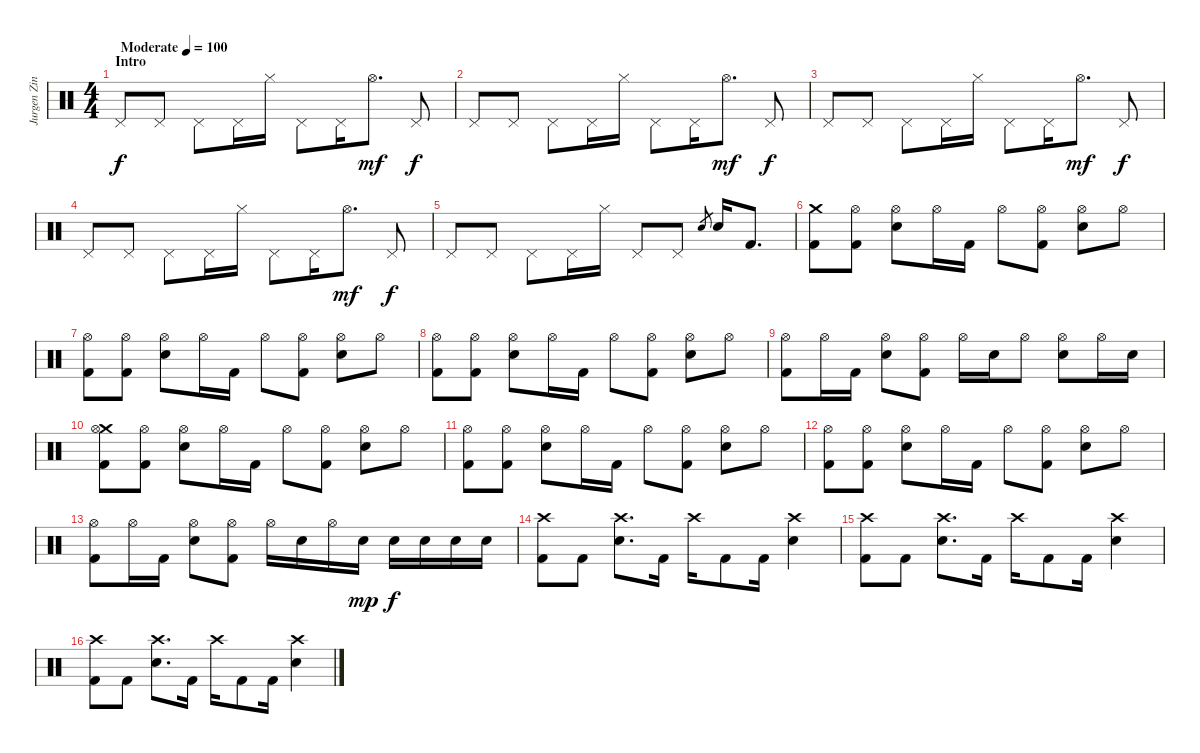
\track ("Jurgen Zing" "Jurgen Zin") {instrument percussion}
\staff {score}
\articulation defaults
\ts (4 4)
\section ("" "Intro")
\tempo (100 "Moderate")
\clef neutral
\ks c "Pedal Hi-Hat (hit)".8{dy f} "Pedal Hi-Hat (hit)".8 "Pedal Hi-Hat (hit)".8 "Pedal Hi-Hat (hit)".16 "Hi-Hat (closed)".16 "Pedal Hi-Hat (hit)".8 "Pedal Hi-Hat (hit)".16 "Hi-Hat (open)".8{d dy mf} "Pedal Hi-Hat (hit)".8{dy f}
|
"Pedal Hi-Hat (hit)".8 "Pedal Hi-Hat (hit)".8 "Pedal Hi-Hat (hit)".8 "Pedal Hi-Hat (hit)".16 "Hi-Hat (closed)".16 "Pedal Hi-Hat (hit)".8 "Pedal Hi-Hat (hit)".16 "Hi-Hat (open)".8{d dy mf} "Pedal Hi-Hat (hit)".8{dy f} |
"Pedal Hi-Hat (hit)".8 "Pedal Hi-Hat (hit)".8 "Pedal Hi-Hat (hit)".8 "Pedal Hi-Hat (hit)".16 "Hi-Hat (closed)".16 "Pedal Hi-Hat (hit)".8 "Pedal Hi-Hat (hit)".16 "Hi-Hat (open)".8{d dy mf} "Pedal Hi-Hat (hit)".8{dy f} |
"Pedal Hi-Hat (hit)".8 "Pedal Hi-Hat (hit)".8 "Pedal Hi-Hat (hit)".8 "Pedal Hi-Hat (hit)".16 "Hi-Hat (closed)".16 "Pedal Hi-Hat (hit)".8 "Pedal Hi-Hat (hit)".16 "Hi-Hat (open)".8{d dy mf} "Pedal Hi-Hat (hit)".8{dy f} |
"Pedal Hi-Hat (hit)".8 "Pedal Hi-Hat (hit)".8 "Pedal Hi-Hat (hit)".8 "Pedal Hi-Hat (hit)".16 "Hi-Hat (closed)".16 "Pedal Hi-Hat (hit)".8 "Pedal Hi-Hat (hit)".8 "Electric Snare (hit)".8{gr} "Electric Snare (hit)".16 "Kick (hit) 2".8{d} |
("Crash medium (hit)" "Kick (hit) 2").8 ("Hi-Hat (open)" "Kick (hit) 2").8 ("Hi-Hat (open)" "Electric Snare (hit)").8 "Hi-Hat (open)".16 "Kick (hit) 2".16 "Hi-Hat (open)".8 ("Hi-Hat (open)" "Kick (hit) 2").8 ("Hi-Hat (open)" "Electric Snare (hit)").8 "Hi-Hat (open)".8 |
("Hi-Hat (open)" "Kick (hit) 2").8 ("Hi-Hat (open)" "Kick (hit) 2").8 ("Hi-Hat (open)" "Electric Snare (hit)").8 "Hi-Hat (open)".16 "Kick (hit) 2".16 "Hi-Hat (open)".8 ("Hi-Hat (open)" "Kick (hit) 2").8 ("Hi-Hat (open)" "Electric Snare (hit)").8 "Hi-Hat (open)".8 |
("Hi-Hat (open)" "Kick (hit) 2").8 ("Hi-Hat (open)" "Kick (hit) 2").8 ("Hi-Hat (open)" "Electric Snare (hit)").8 "Hi-Hat (open)".16 "Kick (hit) 2".16 "Hi-Hat (open)".8 ("Hi-Hat (open)" "Kick (hit) 2").8 ("Hi-Hat (open)" "Electric Snare (hit)").8 "Hi-Hat (open)".8 |
("Hi-Hat (open)" "Kick (hit) 2").8 "Hi-Hat (open)".16 "Kick (hit) 2".16 ("Hi-Hat (open)" "Electric Snare (hit)").8 ("Hi-Hat (open)" "Kick (hit) 2").8 "Hi-Hat (open)".16 "Electric Snare (hit)".16 "Hi-Hat (open)".8 ("Hi-Hat (open)" "Electric Snare (hit)").8 "Hi-Hat (open)".16 "Electric Snare (hit)".16 |
("Crash medium (hit)" "Hi-Hat (open)" "Kick (hit) 2").8 ("Hi-Hat (open)" "Kick (hit) 2").8 ("Hi-Hat (open)" "Electric Snare (hit)").8 "Hi-Hat (open)".16 "Kick (hit) 2".16 "Hi-Hat (open)".8 ("Hi-Hat (open)" "Kick (hit) 2").8 ("Hi-Hat (open)" "Electric Snare (hit)").8 "Hi-Hat (open)".8 |
("Hi-Hat (open)" "Kick (hit) 2").8 ("Hi-Hat (open)" "Kick (hit) 2").8 ("Hi-Hat (open)" "Electric Snare (hit)").8 "Hi-Hat (open)".16 "Kick (hit) 2".16 "Hi-Hat (open)".8 ("Hi-Hat (open)" "Kick (hit) 2").8 ("Hi-Hat (open)" "Electric Snare (hit)").8 "Hi-Hat (open)".8 |
("Hi-Hat (open)" "Kick (hit) 2").8 ("Hi-Hat (open)" "Kick (hit) 2").8 ("Hi-Hat (open)" "Electric Snare (hit)").8 "Hi-Hat (open)".16 "Kick (hit) 2".16 "Hi-Hat (open)".8 ("Hi-Hat (open)" "Kick (hit) 2").8 ("Hi-Hat (open)" "Electric Snare (hit)").8 "Hi-Hat (open)".8 |
("Hi-Hat (open)" "Kick (hit) 2").8 "Hi-Hat (open)".16 "Kick (hit) 2".16 ("Hi-Hat (open)" "Electric Snare (hit)").8 ("Hi-Hat (open)" "Kick (hit) 2").8 "Hi-Hat (open)".16 "Electric Snare (hit)".16 "Hi-Hat (open)".16 "Electric Snare (hit)".16{dy mp} "Electric Snare (hit)".16{dy f} "Electric Snare (hit)".16 "Electric Snare (hit)".16 "Electric Snare (hit)".16 |
("Crash high (hit)" "Kick (hit) 2").8 "Kick (hit) 2".8 ("Crash high (hit)" "Electric Snare (hit)").8{d} "Kick (hit) 2".16 "Crash high (hit)".16 "Kick (hit) 2".8 "Kick (hit) 2".16 ("Crash high (hit)" "Electric Snare (hit)").4 |
("Crash high (hit)" "Kick (hit) 2").8 "Kick (hit) 2".8 ("Crash high (hit)" "Electric Snare (hit)").8{d} "Kick (hit) 2".16 "Crash high (hit)".16 "Kick (hit) 2".8 "Kick (hit) 2".16 ("Crash high (hit)" "Electric Snare (hit)").4 |
("Crash high (hit)" "Kick (hit) 2").8 "Kick (hit) 2".8 ("Crash high (hit)" "Electric Snare (hit)").8{d} "Kick (hit) 2".16 "Crash high (hit)".16 "Kick (hit) 2".8 "Kick (hit) 2".16 ("Crash high (hit)" "Electric Snare (hit)").4
